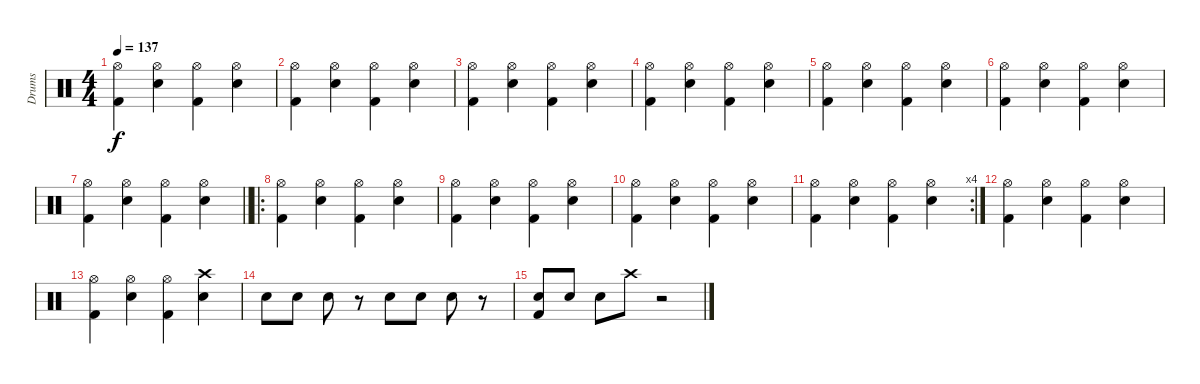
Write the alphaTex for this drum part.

\track ("Drums" "Drums") {instrument percussion}
\staff {score}
\articulation defaults
\ts (4 4)
\tempo 137
\clef neutral
\ks c
("Hi-Hat (open)" "Kick (hit) 2").4{dy f} ("Hi-Hat (open)" "Snare (hit) 2").4 ("Hi-Hat (open)" "Kick (hit) 2").4 ("Hi-Hat (open)" "Snare (hit) 2").4 |
("Hi-Hat (open)" "Kick (hit) 2").4 ("Hi-Hat (open)" "Snare (hit) 2").4 ("Hi-Hat (open)" "Kick (hit) 2").4 ("Hi-Hat (open)" "Snare (hit) 2").4 |
("Hi-Hat (open)" "Kick (hit) 2").4 ("Hi-Hat (open)" "Snare (hit) 2").4 ("Hi-Hat (open)" "Kick (hit) 2").4 ("Hi-Hat (open)" "Snare (hit) 2").4 |
("Hi-Hat (open)" "Kick (hit) 2").4 ("Hi-Hat (open)" "Snare (hit) 2").4 ("Hi-Hat (open)" "Kick (hit) 2").4 ("Hi-Hat (open)" "Snare (hit) 2").4 |
("Hi-Hat (open)" "Kick (hit) 2").4 ("Hi-Hat (open)" "Snare (hit) 2").4 ("Hi-Hat (open)" "Kick (hit) 2").4 ("Hi-Hat (open)" "Snare (hit) 2").4 |
("Hi-Hat (open)" "Kick (hit) 2").4 ("Hi-Hat (open)" "Snare (hit) 2").4 ("Hi-Hat (open)" "Kick (hit) 2").4 ("Hi-Hat (open)" "Snare (hit) 2").4 |
\barLineRight lightlight
("Hi-Hat (open)" "Kick (hit) 2").4 ("Hi-Hat (open)" "Snare (hit) 2").4 ("Hi-Hat (open)" "Kick (hit) 2").4 ("Hi-Hat (open)" "Snare (hit) 2").4 |
\ro
("Hi-Hat (open)" "Kick (hit) 2").4 ("Hi-Hat (open)" "Snare (hit) 2").4 ("Hi-Hat (open)" "Kick (hit) 2").4 ("Hi-Hat (open)" "Snare (hit) 2").4 |
("Hi-Hat (open)" "Kick (hit) 2").4 ("Hi-Hat (open)" "Snare (hit) 2").4 ("Hi-Hat (open)" "Kick (hit) 2").4 ("Hi-Hat (open)" "Snare (hit) 2").4 |
("Hi-Hat (open)" "Kick (hit) 2").4 ("Hi-Hat (open)" "Snare (hit) 2").4 ("Hi-Hat (open)" "Kick (hit) 2").4 ("Hi-Hat (open)" "Snare (hit) 2").4 |
\rc 4
("Hi-Hat (open)" "Kick (hit) 2").4 ("Hi-Hat (open)" "Snare (hit) 2").4 ("Hi-Hat (open)" "Kick (hit) 2").4 ("Hi-Hat (open)" "Snare (hit) 2").4 |
("Hi-Hat (open)" "Kick (hit) 2").4 ("Hi-Hat (open)" "Snare (hit) 2").4 ("Hi-Hat (open)" "Kick (hit) 2").4 ("Hi-Hat (open)" "Snare (hit) 2").4 |
("Hi-Hat (open)" "Kick (hit) 2").4 ("Hi-Hat (open)" "Snare (hit) 2").4 ("Hi-Hat (open)" "Kick (hit) 2").4 ("Crash high (hit)" "Snare (hit) 2").4 |
"Snare (hit) 2".8 "Snare (hit) 2".8 "Snare (hit) 2".8 r.8 "Snare (hit) 2".8 "Snare (hit) 2".8 "Snare (hit) 2".8 r.8 |
("Snare (hit) 2" "Kick (hit) 2").8 "Snare (hit) 2".8 "Snare (hit) 2".8 "Crash high (hit)".8 r.2
